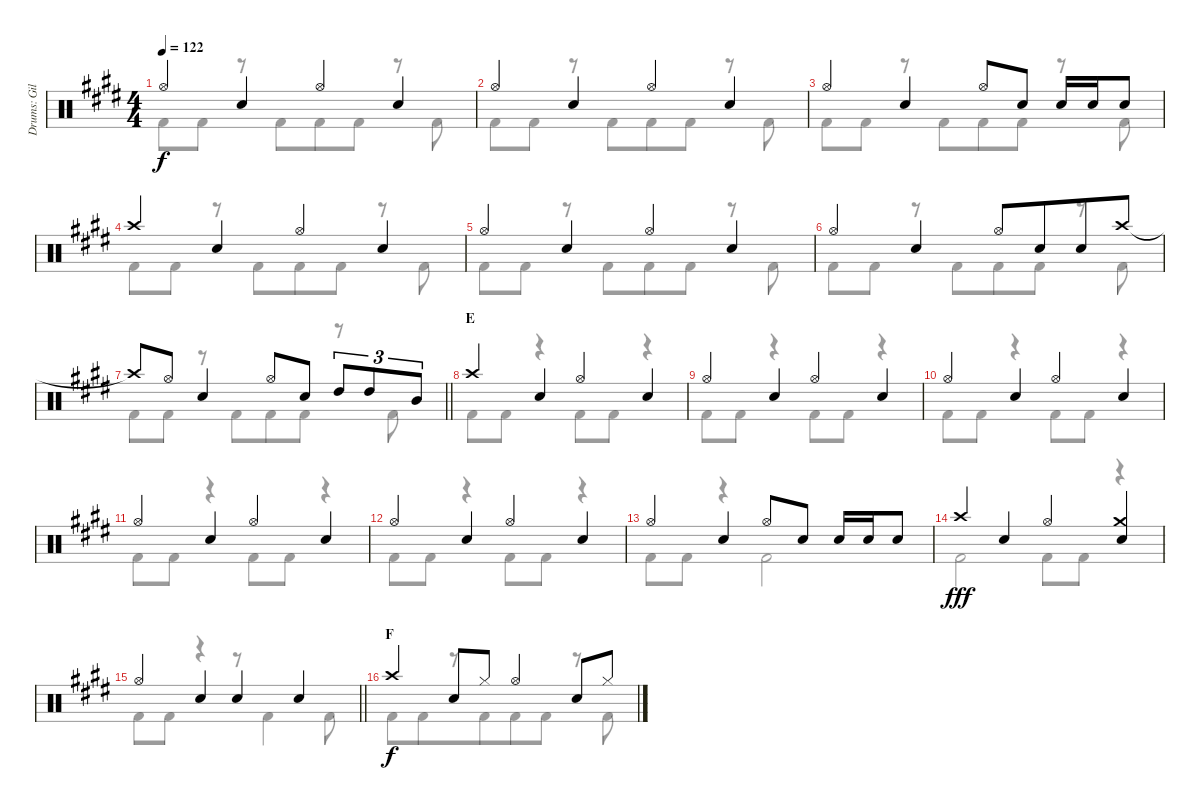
\track ("Drums: Gil" "Drums: Gil") {instrument percussion}
\staff {score}
\articulation defaults
\voice
\ts (4 4)
\tempo 122
\clef neutral
\ks e "Hi-Hat (open)".4{dy f} "Snare (hit) 2".4 "Hi-Hat (open)".4 "Snare (hit) 2".4
|
"Hi-Hat (open)".4 "Snare (hit) 2".4 "Hi-Hat (open)".4 "Snare (hit) 2".4 |
"Hi-Hat (open)".4 "Snare (hit) 2".4 "Hi-Hat (open)".8 "Snare (hit) 2".8 "Snare (hit) 2".16 "Snare (hit) 2".16 "Snare (hit) 2".8 |
"Crash high (hit)".4 "Snare (hit) 2".4 "Hi-Hat (open)".4 "Snare (hit) 2".4 |
"Hi-Hat (open)".4 "Snare (hit) 2".4 "Hi-Hat (open)".4 "Snare (hit) 2".4 |
"Hi-Hat (open)".4 "Snare (hit) 2".4 "Hi-Hat (open)".8 "Snare (hit) 2".8{beam merge} "Snare (hit) 2".8 "Crash high (hit)".8 |
\barLineRight lightlight "Crash high (hit)"{t}.8 "Hi-Hat (open)".8 "Snare (hit) 2".4 "Hi-Hat (open)".8 "Snare (hit) 2".8 "High Tom (hit)".8{tu (3 2)} "High Tom (hit)".8{tu (3 2)} "Mid Tom (hit)".8{tu (3 2)}
|
\section ("" "E")
"Crash high (hit)".4 "Snare (hit) 2".4 "Hi-Hat (open)".4 "Snare (hit) 2".4 |
"Hi-Hat (open)".4 "Snare (hit) 2".4 "Hi-Hat (open)".4 "Snare (hit) 2".4 |
"Hi-Hat (open)".4 "Snare (hit) 2".4 "Hi-Hat (open)".4 "Snare (hit) 2".4 |
"Hi-Hat (open)".4 "Snare (hit) 2".4 "Hi-Hat (open)".4 "Snare (hit) 2".4 |
"Hi-Hat (open)".4 "Snare (hit) 2".4 "Hi-Hat (open)".4 "Snare (hit) 2".4 |
"Hi-Hat (open)".4 "Snare (hit) 2".4 "Hi-Hat (open)".8 "Snare (hit) 2".8 "Snare (hit) 2".16 "Snare (hit) 2".16 "Snare (hit) 2".8 |
"Crash high (hit)".4{dy fff} "Snare (hit) 2".4 "Hi-Hat (open)".4 ("Crash medium (hit)" "Snare (hit) 2").4 |
\barLineRight lightlight "Hi-Hat (open)".4 "Snare (hit) 2".4 "Snare (hit) 2".4 "Snare (hit) 2".4
|
\section ("" "F")
"Crash high (hit)".4{dy f beam merge} "Snare (hit) 2".8 "Hi-Hat (closed)".8 "Hi-Hat (open)".4 "Snare (hit) 2".8 "Hi-Hat (closed)".8
\voice
\clef neutral
\ottava regular
\simile none
\ks e "Kick (hit) 2".8{dy f} "Kick (hit) 2".8
r.8 "Kick (hit) 2".8{beam merge} "Kick (hit) 2".8 "Kick (hit) 2".8 r.8 "Kick (hit) 2".8 |
"Kick (hit) 2".8 "Kick (hit) 2".8 r.8 "Kick (hit) 2".8{beam merge} "Kick (hit) 2".8 "Kick (hit) 2".8 r.8 "Kick (hit) 2".8 |
"Kick (hit) 2".8 "Kick (hit) 2".8 r.8 "Kick (hit) 2".8{beam merge} "Kick (hit) 2".8 "Kick (hit) 2".8 r.8 "Kick (hit) 2".8 |
"Kick (hit) 2".8 "Kick (hit) 2".8 r.8 "Kick (hit) 2".8{beam merge} "Kick (hit) 2".8 "Kick (hit) 2".8 r.8 "Kick (hit) 2".8 |
"Kick (hit) 2".8 "Kick (hit) 2".8 r.8 "Kick (hit) 2".8{beam merge} "Kick (hit) 2".8 "Kick (hit) 2".8 r.8 "Kick (hit) 2".8 |
"Kick (hit) 2".8 "Kick (hit) 2".8 r.8 "Kick (hit) 2".8{beam merge} "Kick (hit) 2".8 "Kick (hit) 2".8 r.8 "Kick (hit) 2".8 |
\barLineRight lightlight "Kick (hit) 2".8 "Kick (hit) 2".8
r.8 "Kick (hit) 2".8{beam merge} "Kick (hit) 2".8 "Kick (hit) 2".8 r.8 "Kick (hit) 2".8 |
"Kick (hit) 2".8 "Kick (hit) 2".8 r.4{beam merge} "Kick (hit) 2".8 "Kick (hit) 2".8 r.4 |
"Kick (hit) 2".8 "Kick (hit) 2".8 r.4{beam merge} "Kick (hit) 2".8 "Kick (hit) 2".8 r.4 |
"Kick (hit) 2".8 "Kick (hit) 2".8 r.4{beam merge} "Kick (hit) 2".8 "Kick (hit) 2".8 r.4 |
"Kick (hit) 2".8 "Kick (hit) 2".8 r.4{beam merge} "Kick (hit) 2".8 "Kick (hit) 2".8 r.4 |
"Kick (hit) 2".8 "Kick (hit) 2".8 r.4{beam merge} "Kick (hit) 2".8 "Kick (hit) 2".8 r.4 |
"Kick (hit) 2".8 "Kick (hit) 2".8 r.4{beam merge} "Kick (hit) 2".2 |
"Kick (hit) 2".2{dy fff} "Kick (hit) 2".8 "Kick (hit) 2".8 r.4 |
\barLineRight lightlight "Kick (hit) 2".8 "Kick (hit) 2".8
r.4 r.8 "Kick (hit) 2".4 "Kick (hit) 2".8 |
"Kick (hit) 2".8{dy f} "Kick (hit) 2".8{beam merge} r.8{beam merge} "Kick (hit) 2".8{beam merge} "Kick (hit) 2".8 "Kick (hit) 2".8 r.8 "Kick (hit) 2".8
